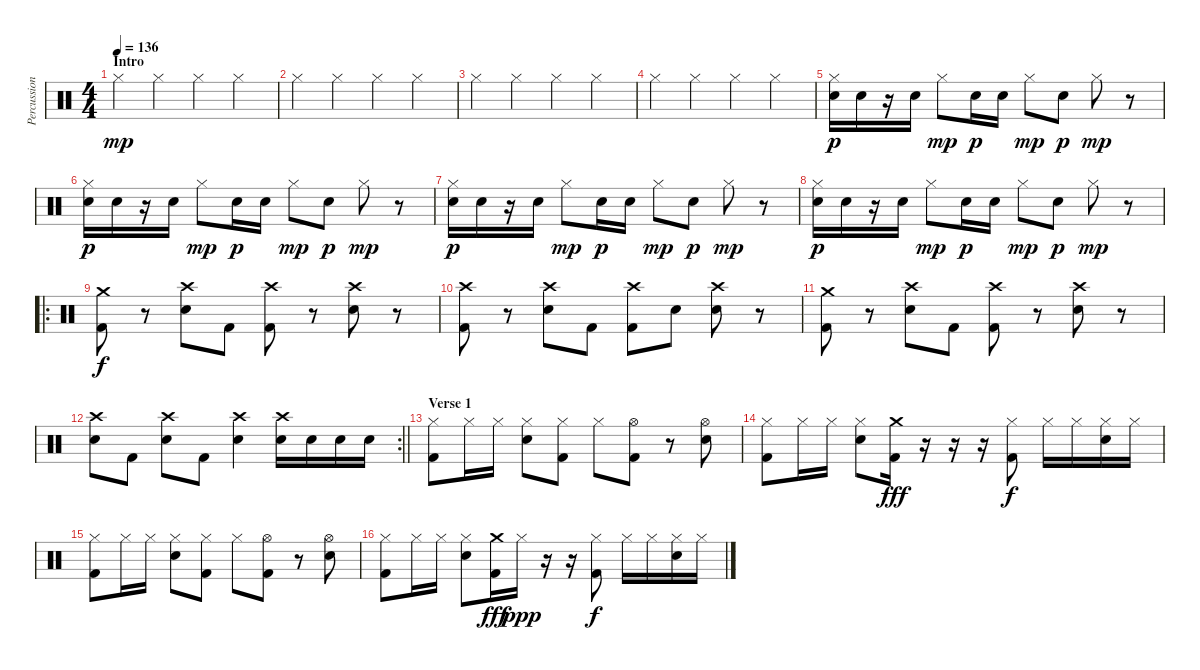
\track ("Percussion" "Percussion") {instrument percussion}
\staff {score}
\articulation defaults
\ts (4 4)
\section ("" "Intro")
\tempo 136
\clef neutral
\ks c "Hi-Hat (closed)".4{dy mp} "Hi-Hat (closed)".4 "Hi-Hat (closed)".4 "Hi-Hat (closed)".4
|
"Hi-Hat (closed)".4 "Hi-Hat (closed)".4 "Hi-Hat (closed)".4 "Hi-Hat (closed)".4 |
"Hi-Hat (closed)".4 "Hi-Hat (closed)".4 "Hi-Hat (closed)".4 "Hi-Hat (closed)".4 |
"Hi-Hat (closed)".4 "Hi-Hat (closed)".4 "Hi-Hat (closed)".4 "Hi-Hat (closed)".4 |
("Hi-Hat (closed)" "Electric Snare (hit)").16{dy p} "Electric Snare (hit)".16 r.16 "Electric Snare (hit)".16 "Hi-Hat (closed)".8{dy mp} "Electric Snare (hit)".16{dy p} "Electric Snare (hit)".16 "Hi-Hat (closed)".8{dy mp} "Electric Snare (hit)".8{dy p} "Hi-Hat (closed)".8{dy mp} r.8 |
("Hi-Hat (closed)" "Electric Snare (hit)").16{dy p} "Electric Snare (hit)".16 r.16 "Electric Snare (hit)".16 "Hi-Hat (closed)".8{dy mp} "Electric Snare (hit)".16{dy p} "Electric Snare (hit)".16 "Hi-Hat (closed)".8{dy mp} "Electric Snare (hit)".8{dy p} "Hi-Hat (closed)".8{dy mp} r.8 |
("Hi-Hat (closed)" "Electric Snare (hit)").16{dy p} "Electric Snare (hit)".16 r.16 "Electric Snare (hit)".16 "Hi-Hat (closed)".8{dy mp} "Electric Snare (hit)".16{dy p} "Electric Snare (hit)".16 "Hi-Hat (closed)".8{dy mp} "Electric Snare (hit)".8{dy p} "Hi-Hat (closed)".8{dy mp} r.8 |
("Hi-Hat (closed)" "Electric Snare (hit)").16{dy p} "Electric Snare (hit)".16 r.16 "Electric Snare (hit)".16 "Hi-Hat (closed)".8{dy mp} "Electric Snare (hit)".16{dy p} "Electric Snare (hit)".16 "Hi-Hat (closed)".8{dy mp} "Electric Snare (hit)".8{dy p} "Hi-Hat (closed)".8{dy mp} r.8 |
\ro
("Crash medium (hit)" "Kick (hit) 2").8{dy f} r.8 ("Crash high (hit)" "Snare (hit) 2").8 "Kick (hit) 2".8 ("Crash high (hit)" "Kick (hit) 2").8 r.8 ("Crash high (hit)" "Snare (hit) 2").8 r.8 |
("Crash high (hit)" "Kick (hit) 2").8 r.8 ("Crash high (hit)" "Snare (hit) 2").8 "Kick (hit) 2".8 ("Crash high (hit)" "Kick (hit) 2").8 "Snare (hit) 2".8 ("Crash high (hit)" "Snare (hit) 2").8 r.8 |
("Crash medium (hit)" "Kick (hit) 2").8 r.8 ("Crash high (hit)" "Snare (hit) 2").8 "Kick (hit) 2".8 ("Crash high (hit)" "Kick (hit) 2").8 r.8 ("Crash high (hit)" "Snare (hit) 2").8 r.8 |
\rc 2
\barLineRight lightlight
("Crash high (hit)" "Snare (hit) 2").8 "Kick (hit) 2".8 ("Crash high (hit)" "Snare (hit) 2").8 "Kick (hit) 2".8 ("Crash high (hit)" "Snare (hit) 2").4 ("Crash high (hit)" "Snare (hit) 2").16 "Snare (hit) 2".16 "Snare (hit) 2".16 "Snare (hit) 2".16 |
\section ("" "Verse 1")
("Hi-Hat (closed)" "Kick (hit) 2").8 "Hi-Hat (closed)".16 "Hi-Hat (closed)".16 ("Hi-Hat (closed)" "Snare (hit) 2").8 ("Hi-Hat (closed)" "Kick (hit) 2").8 "Hi-Hat (closed)".8 ("Hi-Hat (open)" "Kick (hit) 2").8 r.8 ("Hi-Hat (open)" "Snare (hit) 2").8 |
("Hi-Hat (closed)" "Kick (hit) 2").8 "Hi-Hat (closed)".16 "Hi-Hat (closed)".16 ("Hi-Hat (closed)" "Snare (hit) 2").8 ("Crash medium (hit)" "Kick (hit) 2").16{dy fff} r.16 r.16{volume 0} r.16 ("Hi-Hat (closed)" "Kick (hit) 2").8{dy f volume 13} "Hi-Hat (closed)".16 "Hi-Hat (closed)".16 ("Hi-Hat (closed)" "Snare (hit) 2").16 "Hi-Hat (closed)".16 |
("Hi-Hat (closed)" "Kick (hit) 2").8 "Hi-Hat (closed)".16 "Hi-Hat (closed)".16 ("Hi-Hat (closed)" "Snare (hit) 2").8 ("Hi-Hat (closed)" "Kick (hit) 2").8 "Hi-Hat (closed)".8 ("Hi-Hat (open)" "Kick (hit) 2").8 r.8 ("Hi-Hat (open)" "Snare (hit) 2").8 |
("Hi-Hat (closed)" "Kick (hit) 2").8 "Hi-Hat (closed)".16 "Hi-Hat (closed)".16 ("Hi-Hat (closed)" "Snare (hit) 2").8 ("Crash medium (hit)" "Kick (hit) 2").16{dy fff} "Hi-Hat (closed)".16{dy ppp volume 0} r.16 r.16 ("Hi-Hat (closed)" "Kick (hit) 2").8{dy f volume 13} "Hi-Hat (closed)".16 "Hi-Hat (closed)".16 ("Hi-Hat (closed)" "Snare (hit) 2").16 "Hi-Hat (closed)".16
